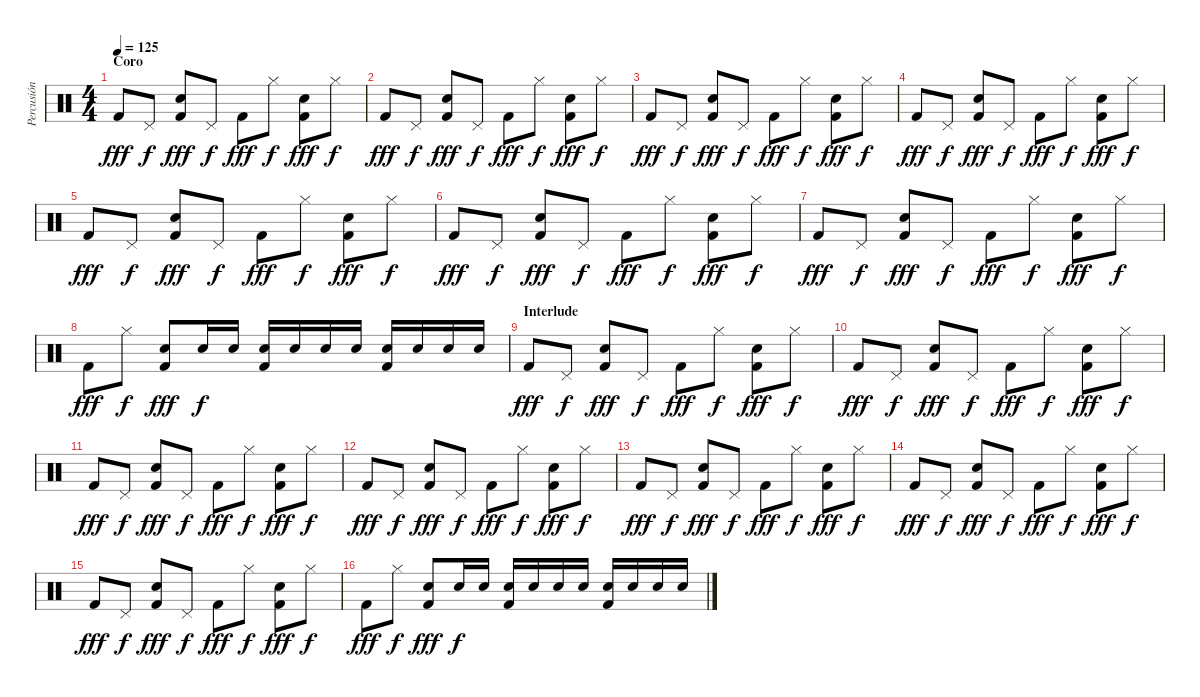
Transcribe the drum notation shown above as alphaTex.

\track ("Percusión" "Percusión") {instrument percussion}
\staff {score}
\articulation defaults
\ts (4 4)
\section ("" "Coro")
\tempo 125
\clef neutral
\ks c "Kick (hit) 2".8{dy fff} "Pedal Hi-Hat (hit)".8{dy f}
("Electric Snare (hit)" "Kick (hit) 2").8{dy fff} "Pedal Hi-Hat (hit)".8{dy f} "Kick (hit) 2".8{dy fff} "Hi-Hat (closed)".8{dy f} ("Electric Snare (hit)" "Kick (hit) 2").8{dy fff} "Hi-Hat (closed)".8{dy f} |
"Kick (hit) 2".8{dy fff} "Pedal Hi-Hat (hit)".8{dy f} ("Electric Snare (hit)" "Kick (hit) 2").8{dy fff} "Pedal Hi-Hat (hit)".8{dy f} "Kick (hit) 2".8{dy fff} "Hi-Hat (closed)".8{dy f} ("Electric Snare (hit)" "Kick (hit) 2").8{dy fff} "Hi-Hat (closed)".8{dy f} |
"Kick (hit) 2".8{dy fff} "Pedal Hi-Hat (hit)".8{dy f} ("Electric Snare (hit)" "Kick (hit) 2").8{dy fff} "Pedal Hi-Hat (hit)".8{dy f} "Kick (hit) 2".8{dy fff} "Hi-Hat (closed)".8{dy f} ("Electric Snare (hit)" "Kick (hit) 2").8{dy fff} "Hi-Hat (closed)".8{dy f} |
"Kick (hit) 2".8{dy fff} "Pedal Hi-Hat (hit)".8{dy f} ("Electric Snare (hit)" "Kick (hit) 2").8{dy fff} "Pedal Hi-Hat (hit)".8{dy f} "Kick (hit) 2".8{dy fff} "Hi-Hat (closed)".8{dy f} ("Electric Snare (hit)" "Kick (hit) 2").8{dy fff} "Hi-Hat (closed)".8{dy f} |
"Kick (hit) 2".8{dy fff} "Pedal Hi-Hat (hit)".8{dy f} ("Electric Snare (hit)" "Kick (hit) 2").8{dy fff} "Pedal Hi-Hat (hit)".8{dy f} "Kick (hit) 2".8{dy fff} "Hi-Hat (closed)".8{dy f} ("Electric Snare (hit)" "Kick (hit) 2").8{dy fff} "Hi-Hat (closed)".8{dy f} |
"Kick (hit) 2".8{dy fff} "Pedal Hi-Hat (hit)".8{dy f} ("Electric Snare (hit)" "Kick (hit) 2").8{dy fff} "Pedal Hi-Hat (hit)".8{dy f} "Kick (hit) 2".8{dy fff} "Hi-Hat (closed)".8{dy f} ("Electric Snare (hit)" "Kick (hit) 2").8{dy fff} "Hi-Hat (closed)".8{dy f} |
"Kick (hit) 2".8{dy fff} "Pedal Hi-Hat (hit)".8{dy f} ("Electric Snare (hit)" "Kick (hit) 2").8{dy fff} "Pedal Hi-Hat (hit)".8{dy f} "Kick (hit) 2".8{dy fff} "Hi-Hat (closed)".8{dy f} ("Electric Snare (hit)" "Kick (hit) 2").8{dy fff} "Hi-Hat (closed)".8{dy f} |
"Kick (hit) 2".8{dy fff} "Hi-Hat (closed)".8{dy f} ("Electric Snare (hit)" "Kick (hit) 2").8{dy fff volume 7} "Electric Snare (hit)".16{dy f volume 13} "Electric Snare (hit)".16 ("Electric Snare (hit)" "Kick (hit) 2").16 "Electric Snare (hit)".16 "Electric Snare (hit)".16 "Electric Snare (hit)".16 ("Electric Snare (hit)" "Kick (hit) 2").16 "Electric Snare (hit)".16 "Electric Snare (hit)".16 "Electric Snare (hit)".16 |
\section ("" "Interlude")
"Kick (hit) 2".8{dy fff} "Pedal Hi-Hat (hit)".8{dy f} ("Electric Snare (hit)" "Kick (hit) 2").8{dy fff} "Pedal Hi-Hat (hit)".8{dy f} "Kick (hit) 2".8{dy fff} "Hi-Hat (closed)".8{dy f} ("Electric Snare (hit)" "Kick (hit) 2").8{dy fff} "Hi-Hat (closed)".8{dy f} |
"Kick (hit) 2".8{dy fff} "Pedal Hi-Hat (hit)".8{dy f} ("Electric Snare (hit)" "Kick (hit) 2").8{dy fff} "Pedal Hi-Hat (hit)".8{dy f} "Kick (hit) 2".8{dy fff} "Hi-Hat (closed)".8{dy f} ("Electric Snare (hit)" "Kick (hit) 2").8{dy fff} "Hi-Hat (closed)".8{dy f} |
"Kick (hit) 2".8{dy fff} "Pedal Hi-Hat (hit)".8{dy f} ("Electric Snare (hit)" "Kick (hit) 2").8{dy fff} "Pedal Hi-Hat (hit)".8{dy f} "Kick (hit) 2".8{dy fff} "Hi-Hat (closed)".8{dy f} ("Electric Snare (hit)" "Kick (hit) 2").8{dy fff} "Hi-Hat (closed)".8{dy f} |
"Kick (hit) 2".8{dy fff} "Pedal Hi-Hat (hit)".8{dy f} ("Electric Snare (hit)" "Kick (hit) 2").8{dy fff} "Pedal Hi-Hat (hit)".8{dy f} "Kick (hit) 2".8{dy fff} "Hi-Hat (closed)".8{dy f} ("Electric Snare (hit)" "Kick (hit) 2").8{dy fff} "Hi-Hat (closed)".8{dy f} |
"Kick (hit) 2".8{dy fff} "Pedal Hi-Hat (hit)".8{dy f} ("Electric Snare (hit)" "Kick (hit) 2").8{dy fff} "Pedal Hi-Hat (hit)".8{dy f} "Kick (hit) 2".8{dy fff} "Hi-Hat (closed)".8{dy f} ("Electric Snare (hit)" "Kick (hit) 2").8{dy fff} "Hi-Hat (closed)".8{dy f} |
"Kick (hit) 2".8{dy fff} "Pedal Hi-Hat (hit)".8{dy f} ("Electric Snare (hit)" "Kick (hit) 2").8{dy fff} "Pedal Hi-Hat (hit)".8{dy f} "Kick (hit) 2".8{dy fff} "Hi-Hat (closed)".8{dy f} ("Electric Snare (hit)" "Kick (hit) 2").8{dy fff} "Hi-Hat (closed)".8{dy f} |
"Kick (hit) 2".8{dy fff} "Pedal Hi-Hat (hit)".8{dy f} ("Electric Snare (hit)" "Kick (hit) 2").8{dy fff} "Pedal Hi-Hat (hit)".8{dy f} "Kick (hit) 2".8{dy fff} "Hi-Hat (closed)".8{dy f} ("Electric Snare (hit)" "Kick (hit) 2").8{dy fff} "Hi-Hat (closed)".8{dy f} |
"Kick (hit) 2".8{dy fff} "Hi-Hat (closed)".8{dy f} ("Electric Snare (hit)" "Kick (hit) 2").8{dy fff volume 7} "Electric Snare (hit)".16{dy f volume 13} "Electric Snare (hit)".16 ("Electric Snare (hit)" "Kick (hit) 2").16 "Electric Snare (hit)".16 "Electric Snare (hit)".16 "Electric Snare (hit)".16 ("Electric Snare (hit)" "Kick (hit) 2").16 "Electric Snare (hit)".16 "Electric Snare (hit)".16 "Electric Snare (hit)".16
